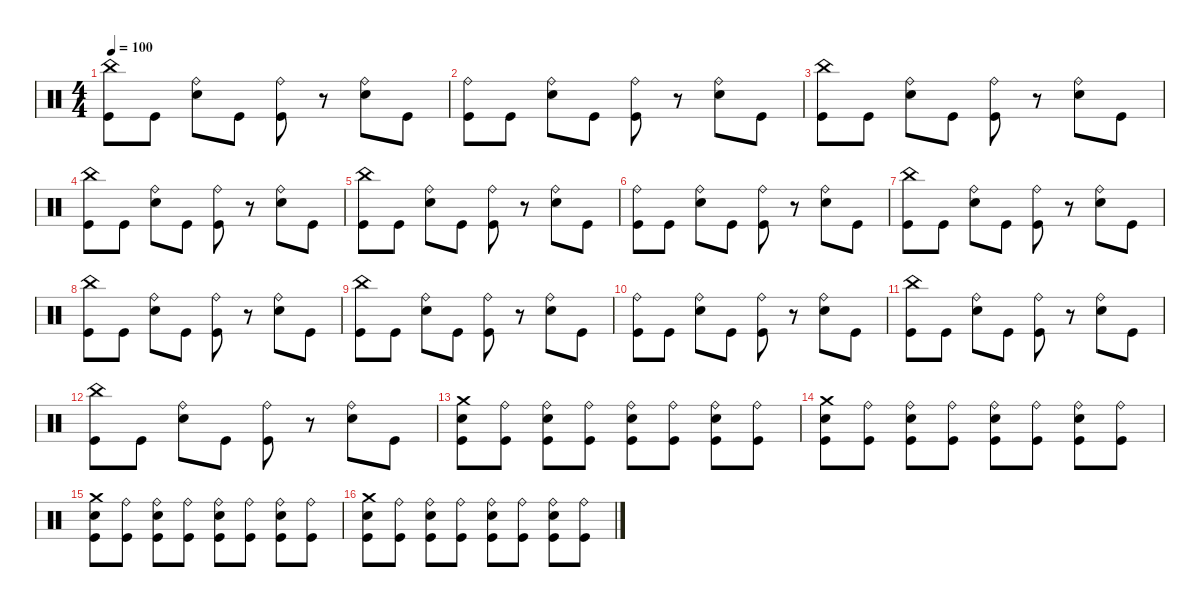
\defaultSystemsLayout 4
\hideDynamics
\bracketExtendMode nobrackets
\singleTrackTrackNamePolicy hidden
\multiTrackTrackNamePolicy hidden
\firstSystemTrackNameMode fullname
\otherSystemsTrackNameOrientation horizontal
\track ("Drumkit" "drm.") {instrument percussion}
\staff {score}
\articulation defaults
\ts (4 4)
\tempo 100
\clef neutral
\ks c
("Kick (hit)" "China (hit)").8{dy mf beam Down} "Kick (hit)".8{beam Down} ("Snare (hit) 2" "Ride (bell)").8{beam Down} "Kick (hit)".8{beam Down} ("Kick (hit)" "Ride (bell)").8{beam Down} r.8{beam Down} ("Snare (hit) 2" "Ride (bell)").8{beam Down} "Kick (hit)".8{beam Down} |
("Kick (hit)" "Ride (bell)").8{beam Down} "Kick (hit)".8{beam Down} ("Snare (hit) 2" "Ride (bell)").8{beam Down} "Kick (hit)".8{beam Down} ("Kick (hit)" "Ride (bell)").8{beam Down} r.8{beam Down} ("Snare (hit) 2" "Ride (bell)").8{beam Down} "Kick (hit)".8{beam Down} |
("Kick (hit)" "China (hit)").8{beam Down} "Kick (hit)".8{beam Down} ("Snare (hit) 2" "Ride (bell)").8{beam Down} "Kick (hit)".8{beam Down} ("Kick (hit)" "Ride (bell)").8{beam Down} r.8{beam Down} ("Snare (hit) 2" "Ride (bell)").8{beam Down} "Kick (hit)".8{beam Down} |
("Kick (hit)" "China (hit)").8{beam Down} "Kick (hit)".8{beam Down} ("Snare (hit) 2" "Ride (bell)").8{beam Down} "Kick (hit)".8{beam Down} ("Kick (hit)" "Ride (bell)").8{beam Down} r.8{beam Down} ("Snare (hit) 2" "Ride (bell)").8{beam Down} "Kick (hit)".8{beam Down} |
("Kick (hit)" "China (hit)").8{beam Down} "Kick (hit)".8{beam Down} ("Snare (hit) 2" "Ride (bell)").8{beam Down} "Kick (hit)".8{beam Down} ("Kick (hit)" "Ride (bell)").8{beam Down} r.8{beam Down} ("Snare (hit) 2" "Ride (bell)").8{beam Down} "Kick (hit)".8{beam Down} |
("Kick (hit)" "Ride (bell)").8{beam Down} "Kick (hit)".8{beam Down} ("Snare (hit) 2" "Ride (bell)").8{beam Down} "Kick (hit)".8{beam Down} ("Kick (hit)" "Ride (bell)").8{beam Down} r.8{beam Down} ("Snare (hit) 2" "Ride (bell)").8{beam Down} "Kick (hit)".8{beam Down} |
("Kick (hit)" "China (hit)").8{beam Down} "Kick (hit)".8{beam Down} ("Snare (hit) 2" "Ride (bell)").8{beam Down} "Kick (hit)".8{beam Down} ("Kick (hit)" "Ride (bell)").8{beam Down} r.8{beam Down} ("Snare (hit) 2" "Ride (bell)").8{beam Down} "Kick (hit)".8{beam Down} |
("Kick (hit)" "China (hit)").8{beam Down} "Kick (hit)".8{beam Down} ("Snare (hit) 2" "Ride (bell)").8{beam Down} "Kick (hit)".8{beam Down} ("Kick (hit)" "Ride (bell)").8{beam Down} r.8{beam Down} ("Snare (hit) 2" "Ride (bell)").8{beam Down} "Kick (hit)".8{beam Down} |
("Kick (hit)" "China (hit)").8{beam Down} "Kick (hit)".8{beam Down} ("Snare (hit) 2" "Ride (bell)").8{beam Down} "Kick (hit)".8{beam Down} ("Kick (hit)" "Ride (bell)").8{beam Down} r.8{beam Down} ("Snare (hit) 2" "Ride (bell)").8{beam Down} "Kick (hit)".8{beam Down} |
("Kick (hit)" "Ride (bell)").8{beam Down} "Kick (hit)".8{beam Down} ("Snare (hit) 2" "Ride (bell)").8{beam Down} "Kick (hit)".8{beam Down} ("Kick (hit)" "Ride (bell)").8{beam Down} r.8{beam Down} ("Snare (hit) 2" "Ride (bell)").8{beam Down} "Kick (hit)".8{beam Down} |
("Kick (hit)" "China (hit)").8{beam Down} "Kick (hit)".8{beam Down} ("Snare (hit) 2" "Ride (bell)").8{beam Down} "Kick (hit)".8{beam Down} ("Kick (hit)" "Ride (bell)").8{beam Down} r.8{beam Down} ("Snare (hit) 2" "Ride (bell)").8{beam Down} "Kick (hit)".8{beam Down} |
("Kick (hit)" "China (hit)").8{beam Down} "Kick (hit)".8{beam Down} ("Snare (hit) 2" "Ride (bell)").8{beam Down} "Kick (hit)".8{beam Down} ("Kick (hit)" "Ride (bell)").8{beam Down} r.8{beam Down} ("Snare (hit) 2" "Ride (bell)").8{beam Down} "Kick (hit)".8{beam Down} |
("Snare (hit) 2" "Kick (hit)" "Crash medium (hit)").8{beam Down} ("Kick (hit)" "Ride (bell)").8{beam Down} ("Snare (hit) 2" "Kick (hit)" "Ride (bell)").8{beam Down} ("Kick (hit)" "Ride (bell)").8{beam Down} ("Kick (hit)" "Snare (hit) 2" "Ride (bell)").8{beam Down} ("Kick (hit)" "Ride (bell)").8{beam Down} ("Kick (hit)" "Snare (hit) 2" "Ride (bell)").8{beam Down} ("Kick (hit)" "Ride (bell)").8{beam Down} |
("Snare (hit) 2" "Kick (hit)" "Crash medium (hit)").8{beam Down} ("Kick (hit)" "Ride (bell)").8{beam Down} ("Snare (hit) 2" "Kick (hit)" "Ride (bell)").8{beam Down} ("Kick (hit)" "Ride (bell)").8{beam Down} ("Kick (hit)" "Snare (hit) 2" "Ride (bell)").8{beam Down} ("Kick (hit)" "Ride (bell)").8{beam Down} ("Kick (hit)" "Snare (hit) 2" "Ride (bell)").8{beam Down} ("Kick (hit)" "Ride (bell)").8{beam Down} |
("Snare (hit) 2" "Kick (hit)" "Crash medium (hit)").8{beam Down} ("Kick (hit)" "Ride (bell)").8{beam Down} ("Snare (hit) 2" "Kick (hit)" "Ride (bell)").8{beam Down} ("Kick (hit)" "Ride (bell)").8{beam Down} ("Kick (hit)" "Snare (hit) 2" "Ride (bell)").8{beam Down} ("Kick (hit)" "Ride (bell)").8{beam Down} ("Kick (hit)" "Snare (hit) 2" "Ride (bell)").8{beam Down} ("Kick (hit)" "Ride (bell)").8{beam Down} |
("Snare (hit) 2" "Kick (hit)" "Crash medium (hit)").8{beam Down} ("Kick (hit)" "Ride (bell)").8{beam Down} ("Snare (hit) 2" "Kick (hit)" "Ride (bell)").8{beam Down} ("Kick (hit)" "Ride (bell)").8{beam Down} ("Kick (hit)" "Snare (hit) 2" "Ride (bell)").8{beam Down} ("Kick (hit)" "Ride (bell)").8{beam Down} ("Kick (hit)" "Snare (hit) 2" "Ride (bell)").8{beam Down} ("Kick (hit)" "Ride (bell)").8{beam Down}
